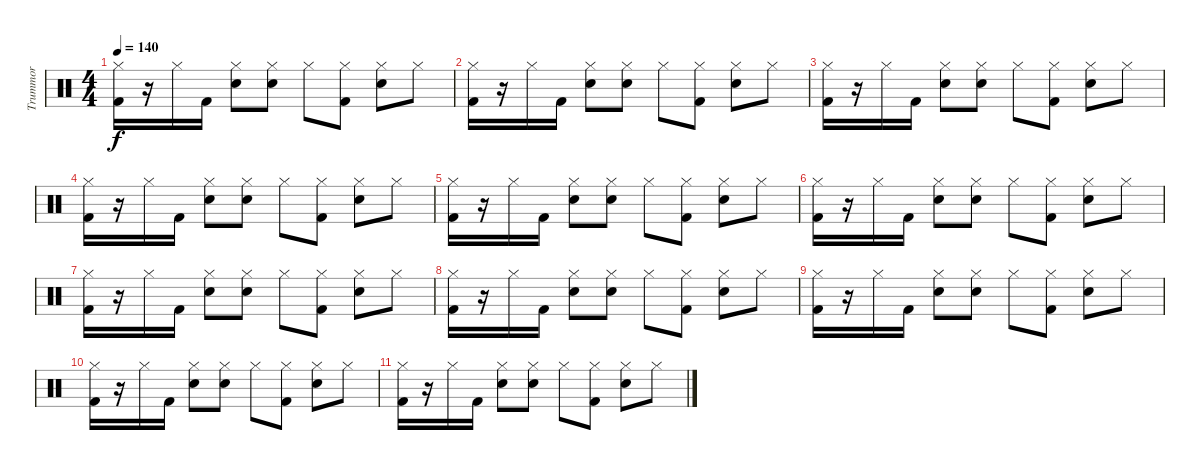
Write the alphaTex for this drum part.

\track ("Trummor" "Trummor") {instrument percussion}
\staff {score}
\articulation defaults
\ts (4 4)
\tempo 140
\clef neutral
\ks c
("Hi-Hat (closed)" "Kick (hit) 2").16{dy f} r.16 "Hi-Hat (closed)".16 "Kick (hit) 2".16 ("Hi-Hat (closed)" "Electric Snare (hit)").8 ("Hi-Hat (closed)" "Electric Snare (hit)").8 "Hi-Hat (closed)".8 ("Hi-Hat (closed)" "Kick (hit) 2").8 ("Hi-Hat (closed)" "Electric Snare (hit)").8 "Hi-Hat (closed)".8 |
("Hi-Hat (closed)" "Kick (hit) 2").16 r.16 "Hi-Hat (closed)".16 "Kick (hit) 2".16 ("Hi-Hat (closed)" "Electric Snare (hit)").8 ("Hi-Hat (closed)" "Electric Snare (hit)").8 "Hi-Hat (closed)".8 ("Hi-Hat (closed)" "Kick (hit) 2").8 ("Hi-Hat (closed)" "Electric Snare (hit)").8 "Hi-Hat (closed)".8 |
("Hi-Hat (closed)" "Kick (hit) 2").16 r.16 "Hi-Hat (closed)".16 "Kick (hit) 2".16 ("Hi-Hat (closed)" "Electric Snare (hit)").8 ("Hi-Hat (closed)" "Electric Snare (hit)").8 "Hi-Hat (closed)".8 ("Hi-Hat (closed)" "Kick (hit) 2").8 ("Hi-Hat (closed)" "Electric Snare (hit)").8 "Hi-Hat (closed)".8 |
("Hi-Hat (closed)" "Kick (hit) 2").16 r.16 "Hi-Hat (closed)".16 "Kick (hit) 2".16 ("Hi-Hat (closed)" "Electric Snare (hit)").8 ("Hi-Hat (closed)" "Electric Snare (hit)").8 "Hi-Hat (closed)".8 ("Hi-Hat (closed)" "Kick (hit) 2").8 ("Hi-Hat (closed)" "Electric Snare (hit)").8 "Hi-Hat (closed)".8 |
("Hi-Hat (closed)" "Kick (hit) 2").16 r.16 "Hi-Hat (closed)".16 "Kick (hit) 2".16 ("Hi-Hat (closed)" "Electric Snare (hit)").8 ("Hi-Hat (closed)" "Electric Snare (hit)").8 "Hi-Hat (closed)".8 ("Hi-Hat (closed)" "Kick (hit) 2").8 ("Hi-Hat (closed)" "Electric Snare (hit)").8 "Hi-Hat (closed)".8 |
("Hi-Hat (closed)" "Kick (hit) 2").16 r.16 "Hi-Hat (closed)".16 "Kick (hit) 2".16 ("Hi-Hat (closed)" "Electric Snare (hit)").8 ("Hi-Hat (closed)" "Electric Snare (hit)").8 "Hi-Hat (closed)".8 ("Hi-Hat (closed)" "Kick (hit) 2").8 ("Hi-Hat (closed)" "Electric Snare (hit)").8 "Hi-Hat (closed)".8 |
("Hi-Hat (closed)" "Kick (hit) 2").16 r.16 "Hi-Hat (closed)".16 "Kick (hit) 2".16 ("Hi-Hat (closed)" "Electric Snare (hit)").8 ("Hi-Hat (closed)" "Electric Snare (hit)").8 "Hi-Hat (closed)".8 ("Hi-Hat (closed)" "Kick (hit) 2").8 ("Hi-Hat (closed)" "Electric Snare (hit)").8 "Hi-Hat (closed)".8 |
("Hi-Hat (closed)" "Kick (hit) 2").16 r.16 "Hi-Hat (closed)".16 "Kick (hit) 2".16 ("Hi-Hat (closed)" "Electric Snare (hit)").8 ("Hi-Hat (closed)" "Electric Snare (hit)").8 "Hi-Hat (closed)".8 ("Hi-Hat (closed)" "Kick (hit) 2").8 ("Hi-Hat (closed)" "Electric Snare (hit)").8 "Hi-Hat (closed)".8 |
("Hi-Hat (closed)" "Kick (hit) 2").16 r.16 "Hi-Hat (closed)".16 "Kick (hit) 2".16 ("Hi-Hat (closed)" "Electric Snare (hit)").8 ("Hi-Hat (closed)" "Electric Snare (hit)").8 "Hi-Hat (closed)".8 ("Hi-Hat (closed)" "Kick (hit) 2").8 ("Hi-Hat (closed)" "Electric Snare (hit)").8 "Hi-Hat (closed)".8 |
("Hi-Hat (closed)" "Kick (hit) 2").16 r.16 "Hi-Hat (closed)".16 "Kick (hit) 2".16 ("Hi-Hat (closed)" "Electric Snare (hit)").8 ("Hi-Hat (closed)" "Electric Snare (hit)").8 "Hi-Hat (closed)".8 ("Hi-Hat (closed)" "Kick (hit) 2").8 ("Hi-Hat (closed)" "Electric Snare (hit)").8 "Hi-Hat (closed)".8 |
("Hi-Hat (closed)" "Kick (hit) 2").16 r.16 "Hi-Hat (closed)".16 "Kick (hit) 2".16 ("Hi-Hat (closed)" "Electric Snare (hit)").8 ("Hi-Hat (closed)" "Electric Snare (hit)").8 "Hi-Hat (closed)".8 ("Hi-Hat (closed)" "Kick (hit) 2").8 ("Hi-Hat (closed)" "Electric Snare (hit)").8 "Hi-Hat (closed)".8
